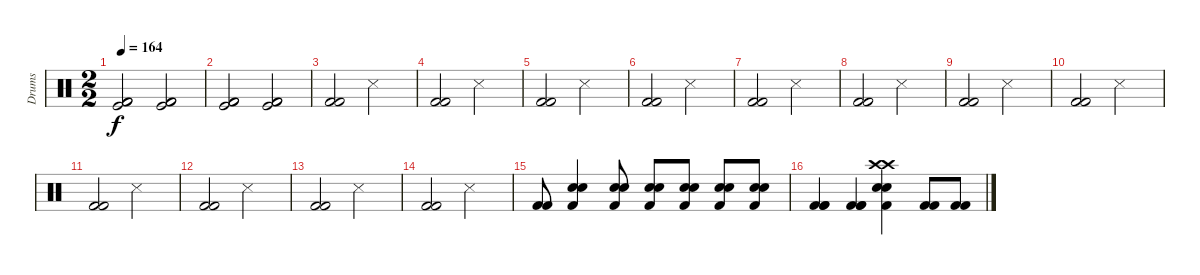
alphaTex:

\track ("Drums" "Drums") {instrument percussion}
\staff {score}
\articulation defaults
\ts (2 2)
\tempo 164
\clef neutral
\ks c
("Kick (hit) 2" "Kick (hit) 2" "Kick (hit)").2{dy f} ("Kick (hit) 2" "Kick (hit) 2" "Kick (hit)").2 |
("Kick (hit) 2" "Kick (hit) 2" "Kick (hit)").2 ("Kick (hit) 2" "Kick (hit) 2" "Kick (hit)").2 |
("Kick (hit) 2" "Kick (hit) 2").2 "Snare (side stick) 3".2 |
("Kick (hit) 2" "Kick (hit) 2").2 "Snare (side stick) 3".2 |
("Kick (hit) 2" "Kick (hit) 2").2 "Snare (side stick) 3".2 |
("Kick (hit) 2" "Kick (hit) 2").2 "Snare (side stick) 3".2 |
("Kick (hit) 2" "Kick (hit) 2").2 "Snare (side stick) 3".2 |
("Kick (hit) 2" "Kick (hit) 2").2 "Snare (side stick) 3".2 |
("Kick (hit) 2" "Kick (hit) 2").2 "Snare (side stick) 3".2 |
("Kick (hit) 2" "Kick (hit) 2").2 "Snare (side stick) 3".2 |
("Kick (hit) 2" "Kick (hit) 2").2 "Snare (side stick) 3".2 |
("Kick (hit) 2" "Kick (hit) 2").2 "Snare (side stick) 3".2 |
("Kick (hit) 2" "Kick (hit) 2").2 "Snare (side stick) 3".2 |
("Kick (hit) 2" "Kick (hit) 2").2 "Snare (side stick) 3".2 |
("Kick (hit) 2" "Kick (hit) 2").8 ("Kick (hit) 2" "Snare (hit) 2" "Snare (hit) 2").4 ("Kick (hit) 2" "Snare (hit) 2" "Snare (hit) 2").8 ("Kick (hit) 2" "Snare (hit) 2" "Snare (hit) 2").8 ("Kick (hit) 2" "Snare (hit) 2" "Snare (hit) 2").8 ("Kick (hit) 2" "Snare (hit) 2" "Snare (hit) 2").8 ("Kick (hit) 2" "Snare (hit) 2" "Snare (hit) 2").8 |
("Kick (hit) 2" "Kick (hit) 2" "Kick (hit) 2").4 ("Kick (hit) 2" "Kick (hit) 2" "Kick (hit) 2").4 ("Crash high (hit)" "Kick (hit) 2" "Snare (hit) 2" "Snare (hit) 2" "Crash high (hit)").4 ("Kick (hit) 2" "Kick (hit) 2").8 ("Kick (hit) 2" "Kick (hit) 2").8
